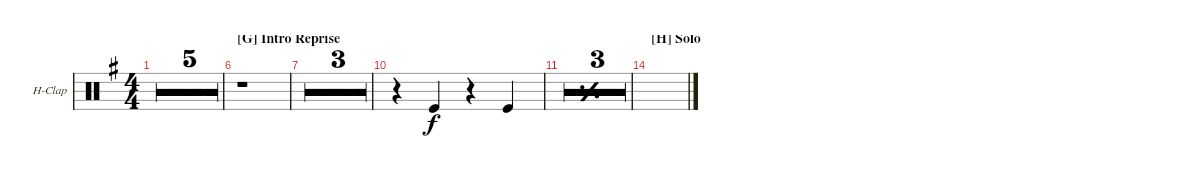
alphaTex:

\defaultSystemsLayout 4
\bracketExtendMode groupsimilarinstruments
\firstSystemTrackNameOrientation horizontal
\otherSystemsTrackNameOrientation horizontal
\track ("Hand Clap" "H-Clap") {multiBarRest instrument percussion}
\staff {score}
\articulation defaults
\ts (4 4)
\tempo 90
\clef neutral
\ks g
r.1{dy f} |
r.1 |
r.1 |
r.1 |
r.1 |
\section ("G" "Intro Reprise")
r.1 |
r.1 |
r.1 |
r.1 |
r.4 "Kick (hit)".4 r.4 "Kick (hit)".4 |
\simile simple
|
|
|
\section ("H" "Solo")
